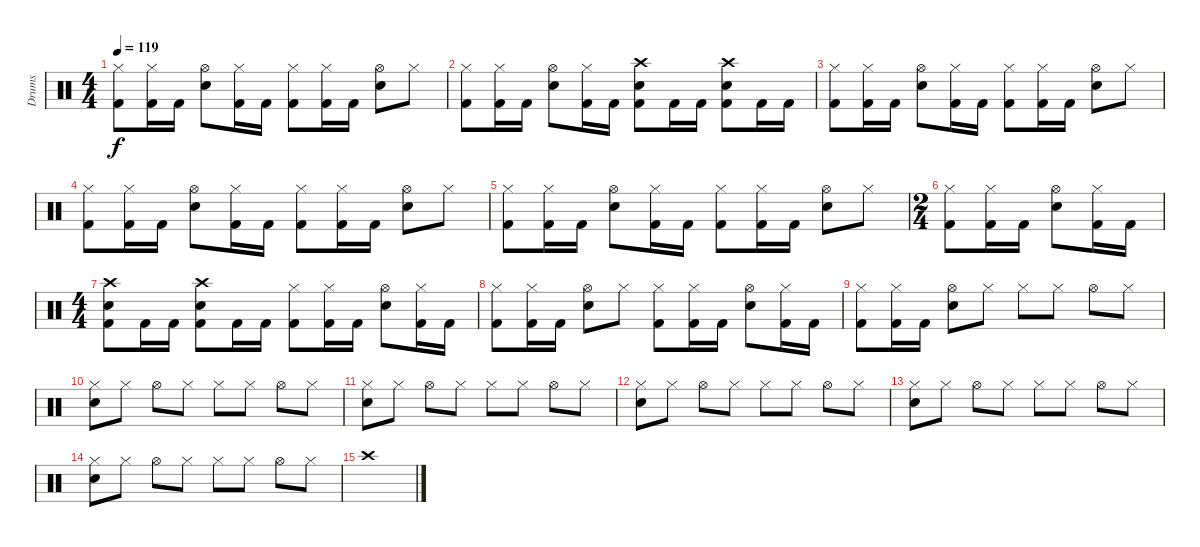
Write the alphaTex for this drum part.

\track ("Drums" "Drums") {instrument percussion}
\staff {score}
\articulation defaults
\ts (4 4)
\tempo 119
\clef neutral
\ks c
("Hi-Hat (closed)" "Kick (hit) 2").8{dy f} ("Hi-Hat (closed)" "Kick (hit) 2").16 "Kick (hit) 2".16 ("Hi-Hat (open)" "Snare (hit) 2").8 ("Hi-Hat (closed)" "Kick (hit) 2").16 "Kick (hit) 2".16 ("Hi-Hat (closed)" "Kick (hit) 2").8 ("Hi-Hat (closed)" "Kick (hit) 2").16 "Kick (hit) 2".16 ("Hi-Hat (open)" "Snare (hit) 2").8 "Hi-Hat (closed)".8 |
("Hi-Hat (closed)" "Kick (hit) 2").8 ("Hi-Hat (closed)" "Kick (hit) 2").16 "Kick (hit) 2".16 ("Hi-Hat (open)" "Snare (hit) 2").8 ("Hi-Hat (closed)" "Kick (hit) 2").16 "Kick (hit) 2".16 ("Crash high (hit)" "Kick (hit) 2" "Snare (hit) 2").8 "Kick (hit) 2".16 "Kick (hit) 2".16 ("Crash high (hit)" "Kick (hit) 2" "Snare (hit) 2").8 "Kick (hit) 2".16 "Kick (hit) 2".16 |
("Hi-Hat (closed)" "Kick (hit) 2").8 ("Hi-Hat (closed)" "Kick (hit) 2").16 "Kick (hit) 2".16 ("Hi-Hat (open)" "Snare (hit) 2").8 ("Hi-Hat (closed)" "Kick (hit) 2").16 "Kick (hit) 2".16 ("Hi-Hat (closed)" "Kick (hit) 2").8 ("Hi-Hat (closed)" "Kick (hit) 2").16 "Kick (hit) 2".16 ("Hi-Hat (open)" "Snare (hit) 2").8 "Hi-Hat (closed)".8 |
("Hi-Hat (closed)" "Kick (hit) 2").8 ("Hi-Hat (closed)" "Kick (hit) 2").16 "Kick (hit) 2".16 ("Hi-Hat (open)" "Snare (hit) 2").8 ("Hi-Hat (closed)" "Kick (hit) 2").16 "Kick (hit) 2".16 ("Hi-Hat (closed)" "Kick (hit) 2").8 ("Hi-Hat (closed)" "Kick (hit) 2").16 "Kick (hit) 2".16 ("Hi-Hat (open)" "Snare (hit) 2").8 "Hi-Hat (closed)".8 |
("Hi-Hat (closed)" "Kick (hit) 2").8 ("Hi-Hat (closed)" "Kick (hit) 2").16 "Kick (hit) 2".16 ("Hi-Hat (open)" "Snare (hit) 2").8 ("Hi-Hat (closed)" "Kick (hit) 2").16 "Kick (hit) 2".16 ("Hi-Hat (closed)" "Kick (hit) 2").8 ("Hi-Hat (closed)" "Kick (hit) 2").16 "Kick (hit) 2".16 ("Hi-Hat (open)" "Snare (hit) 2").8 "Hi-Hat (closed)".8 |
\ts (2 4)
("Hi-Hat (closed)" "Kick (hit) 2").8 ("Hi-Hat (closed)" "Kick (hit) 2").16 "Kick (hit) 2".16 ("Hi-Hat (open)" "Snare (hit) 2").8 ("Hi-Hat (closed)" "Kick (hit) 2").16 "Kick (hit) 2".16 |
\ts (4 4)
("Crash high (hit)" "Kick (hit) 2" "Snare (hit) 2").8 "Kick (hit) 2".16 "Kick (hit) 2".16 ("Crash high (hit)" "Kick (hit) 2" "Snare (hit) 2").8 "Kick (hit) 2".16 "Kick (hit) 2".16 ("Hi-Hat (closed)" "Kick (hit) 2").8 ("Hi-Hat (closed)" "Kick (hit) 2").16 "Kick (hit) 2".16 ("Hi-Hat (open)" "Snare (hit) 2").8 ("Hi-Hat (closed)" "Kick (hit) 2").16 "Kick (hit) 2".16 |
("Hi-Hat (closed)" "Kick (hit) 2").8 ("Hi-Hat (closed)" "Kick (hit) 2").16 "Kick (hit) 2".16 ("Hi-Hat (open)" "Snare (hit) 2").8 "Hi-Hat (closed)".8 ("Hi-Hat (closed)" "Kick (hit) 2").8 ("Hi-Hat (closed)" "Kick (hit) 2").16 "Kick (hit) 2".16 ("Hi-Hat (open)" "Snare (hit) 2").8 ("Hi-Hat (closed)" "Kick (hit) 2").16 "Kick (hit) 2".16 |
("Hi-Hat (closed)" "Kick (hit) 2").8 ("Hi-Hat (closed)" "Kick (hit) 2").16 "Kick (hit) 2".16 ("Hi-Hat (open)" "Snare (hit) 2").8 "Hi-Hat (closed)".8 "Hi-Hat (closed)".8 "Hi-Hat (closed)".8 "Hi-Hat (open)".8 "Hi-Hat (closed)".8 |
("Hi-Hat (closed)" "Snare (hit) 2").8 "Hi-Hat (closed)".8 "Hi-Hat (open)".8 "Hi-Hat (closed)".8 "Hi-Hat (closed)".8 "Hi-Hat (closed)".8 "Hi-Hat (open)".8 "Hi-Hat (closed)".8 |
("Hi-Hat (closed)" "Snare (hit) 2").8 "Hi-Hat (closed)".8 "Hi-Hat (open)".8 "Hi-Hat (closed)".8 "Hi-Hat (closed)".8 "Hi-Hat (closed)".8 "Hi-Hat (open)".8 "Hi-Hat (closed)".8 |
("Hi-Hat (closed)" "Snare (hit) 2").8 "Hi-Hat (closed)".8 "Hi-Hat (open)".8 "Hi-Hat (closed)".8 "Hi-Hat (closed)".8 "Hi-Hat (closed)".8 "Hi-Hat (open)".8 "Hi-Hat (closed)".8 |
("Hi-Hat (closed)" "Snare (hit) 2").8 "Hi-Hat (closed)".8 "Hi-Hat (open)".8 "Hi-Hat (closed)".8 "Hi-Hat (closed)".8 "Hi-Hat (closed)".8 "Hi-Hat (open)".8 "Hi-Hat (closed)".8 |
("Hi-Hat (closed)" "Snare (hit) 2").8 "Hi-Hat (closed)".8 "Hi-Hat (open)".8 "Hi-Hat (closed)".8 "Hi-Hat (closed)".8 "Hi-Hat (closed)".8 "Hi-Hat (open)".8 "Hi-Hat (closed)".8 |
"Crash high (hit)".1
